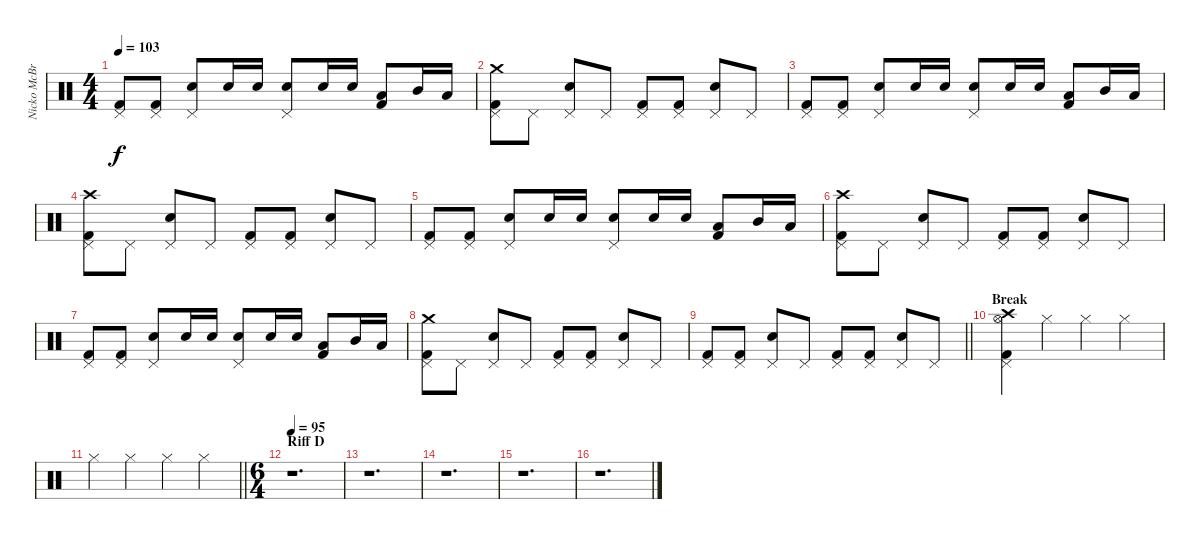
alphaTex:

\track ("Nicko McBrain" "Nicko McBr") {instrument percussion}
\staff {score}
\articulation defaults
\ts (4 4)
\tempo 103
\clef neutral
\ks c
("Kick (hit) 2" "Pedal Hi-Hat (hit)").8{dy f} ("Kick (hit) 2" "Pedal Hi-Hat (hit)").8 ("Snare (hit) 2" "Pedal Hi-Hat (hit)").8 "Snare (hit) 2".16 "Snare (hit) 2".16 ("Snare (hit) 2" "Pedal Hi-Hat (hit)").8 "Snare (hit) 2".16 "Snare (hit) 2".16 ("Kick (hit) 2" "Low Tom (hit)").8 "Mid Tom (hit)".16 "Low Tom (hit)".16 |
("Kick (hit) 2" "Pedal Hi-Hat (hit)" "Crash medium (hit)").8 "Pedal Hi-Hat (hit)".8 ("Snare (hit) 2" "Pedal Hi-Hat (hit)").8 "Pedal Hi-Hat (hit)".8 ("Kick (hit) 2" "Pedal Hi-Hat (hit)").8 ("Kick (hit) 2" "Pedal Hi-Hat (hit)").8 ("Snare (hit) 2" "Pedal Hi-Hat (hit)").8 "Pedal Hi-Hat (hit)".8 |
("Kick (hit) 2" "Pedal Hi-Hat (hit)").8 ("Kick (hit) 2" "Pedal Hi-Hat (hit)").8 ("Snare (hit) 2" "Pedal Hi-Hat (hit)").8 "Snare (hit) 2".16 "Snare (hit) 2".16 ("Snare (hit) 2" "Pedal Hi-Hat (hit)").8 "Snare (hit) 2".16 "Snare (hit) 2".16 ("Kick (hit) 2" "Low Tom (hit)").8 "Mid Tom (hit)".16 "Low Tom (hit)".16 |
("Kick (hit) 2" "Pedal Hi-Hat (hit)" "Crash high (hit)").8 "Pedal Hi-Hat (hit)".8 ("Snare (hit) 2" "Pedal Hi-Hat (hit)").8 "Pedal Hi-Hat (hit)".8 ("Kick (hit) 2" "Pedal Hi-Hat (hit)").8 ("Kick (hit) 2" "Pedal Hi-Hat (hit)").8 ("Snare (hit) 2" "Pedal Hi-Hat (hit)").8 "Pedal Hi-Hat (hit)".8 |
("Kick (hit) 2" "Pedal Hi-Hat (hit)").8 ("Kick (hit) 2" "Pedal Hi-Hat (hit)").8 ("Snare (hit) 2" "Pedal Hi-Hat (hit)").8 "Snare (hit) 2".16 "Snare (hit) 2".16 ("Snare (hit) 2" "Pedal Hi-Hat (hit)").8 "Snare (hit) 2".16 "Snare (hit) 2".16 ("Kick (hit) 2" "Low Tom (hit)").8 "Mid Tom (hit)".16 "Low Tom (hit)".16 |
("Kick (hit) 2" "Pedal Hi-Hat (hit)" "Crash high (hit)").8 "Pedal Hi-Hat (hit)".8 ("Snare (hit) 2" "Pedal Hi-Hat (hit)").8 "Pedal Hi-Hat (hit)".8 ("Kick (hit) 2" "Pedal Hi-Hat (hit)").8 ("Kick (hit) 2" "Pedal Hi-Hat (hit)").8 ("Snare (hit) 2" "Pedal Hi-Hat (hit)").8 "Pedal Hi-Hat (hit)".8 |
("Kick (hit) 2" "Pedal Hi-Hat (hit)").8 ("Kick (hit) 2" "Pedal Hi-Hat (hit)").8 ("Snare (hit) 2" "Pedal Hi-Hat (hit)").8 "Snare (hit) 2".16 "Snare (hit) 2".16 ("Snare (hit) 2" "Pedal Hi-Hat (hit)").8 "Snare (hit) 2".16 "Snare (hit) 2".16 ("Kick (hit) 2" "Low Tom (hit)").8 "Mid Tom (hit)".16 "Low Tom (hit)".16 |
("Kick (hit) 2" "Pedal Hi-Hat (hit)" "Crash medium (hit)").8 "Pedal Hi-Hat (hit)".8 ("Snare (hit) 2" "Pedal Hi-Hat (hit)").8 "Pedal Hi-Hat (hit)".8 ("Kick (hit) 2" "Pedal Hi-Hat (hit)").8 ("Kick (hit) 2" "Pedal Hi-Hat (hit)").8 ("Snare (hit) 2" "Pedal Hi-Hat (hit)").8 "Pedal Hi-Hat (hit)".8 |
\barLineRight lightlight
("Kick (hit) 2" "Pedal Hi-Hat (hit)").8 ("Kick (hit) 2" "Pedal Hi-Hat (hit)").8 ("Snare (hit) 2" "Pedal Hi-Hat (hit)").8 "Pedal Hi-Hat (hit)".8 ("Kick (hit) 2" "Pedal Hi-Hat (hit)").8 ("Kick (hit) 2" "Pedal Hi-Hat (hit)").8 ("Snare (hit) 2" "Pedal Hi-Hat (hit)").8 "Pedal Hi-Hat (hit)".8 |
\section ("" "Break")
("Kick (hit) 2" "Pedal Hi-Hat (hit)" "Hi-Hat (open)" "Crash high (hit)").4 "Hi-Hat (closed)".4 "Hi-Hat (closed)".4 "Hi-Hat (closed)".4 |
\barLineRight lightlight "Hi-Hat (closed)".4 "Hi-Hat (closed)".4 "Hi-Hat (closed)".4 "Hi-Hat (closed)".4
|
\ts (6 4)
\section ("" "Riff D")
\tempo 95
r.1{d} |
r.1{d} |
r.1{d} |
r.1{d} |
r.1{d}
